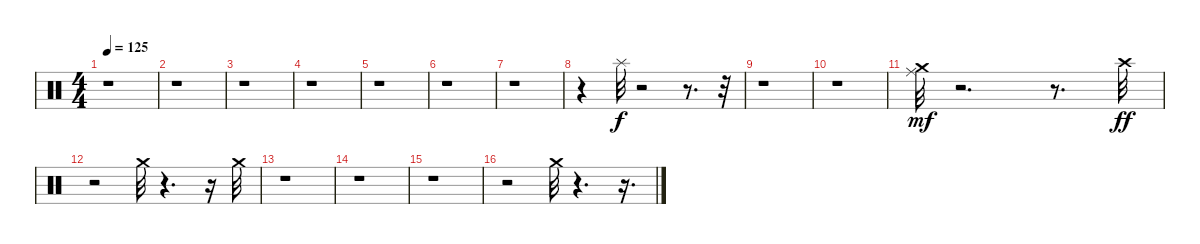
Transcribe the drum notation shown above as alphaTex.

\track "" {instrument percussion}
\staff {score}
\articulation defaults
\ts (4 4)
\tempo 125
\clef neutral
\ks c
r.1{dy ff} |
r.1 |
r.1 |
r.1 |
r.1 |
r.1 |
r.1 |
r.4 "Splash (hit)".32{dy f} r.2 r.8{d} r.32 |
r.1 |
r.1 |
("Ride (middle)" "Crash medium (hit)").32{dy mf} r.2{d} r.8{d} "Crash high (hit)".32{dy ff} |
r.2 "Crash medium (hit)".32 r.4{d} r.16 "Crash medium (hit)".32 |
r.1 |
r.1 |
r.1 |
r.2 "Crash medium (hit)".32 r.4{d} r.16{d}
